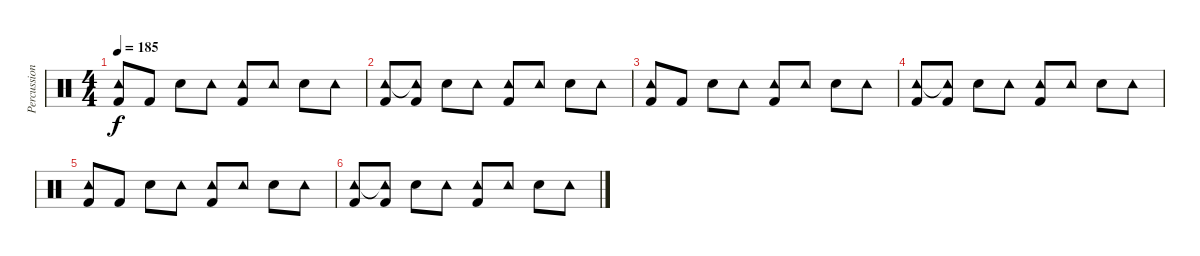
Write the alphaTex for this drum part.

\track ("Percussion" "Percussion") {instrument percussion}
\staff {score}
\articulation defaults
\ts (4 4)
\tempo 185
\clef neutral
\ks c
("Tambourine (hit)" "Kick (hit) 2").8{dy f} "Kick (hit) 2".8 "Electric Snare (hit)".8 "Tambourine (hit)".8 ("Tambourine (hit)" "Kick (hit) 2").8 "Tambourine (hit)".8 "Snare (hit) 2".8 "Tambourine (hit)".8 |
("Tambourine (hit)" "Kick (hit) 2").8 ("Tambourine (hit)"{t} "Kick (hit) 2").8 "Electric Snare (hit)".8 "Tambourine (hit)".8 ("Tambourine (hit)" "Kick (hit) 2").8 "Tambourine (hit)".8 "Electric Snare (hit)".8 "Tambourine (hit)".8 |
("Tambourine (hit)" "Kick (hit) 2").8 "Kick (hit) 2".8 "Electric Snare (hit)".8 "Tambourine (hit)".8 ("Tambourine (hit)" "Kick (hit) 2").8 "Tambourine (hit)".8 "Snare (hit) 2".8 "Tambourine (hit)".8 |
("Tambourine (hit)" "Kick (hit) 2").8 ("Tambourine (hit)"{t} "Kick (hit) 2").8 "Electric Snare (hit)".8 "Tambourine (hit)".8 ("Tambourine (hit)" "Kick (hit) 2").8 "Tambourine (hit)".8 "Electric Snare (hit)".8 "Tambourine (hit)".8 |
("Tambourine (hit)" "Kick (hit) 2").8 "Kick (hit) 2".8 "Electric Snare (hit)".8 "Tambourine (hit)".8 ("Tambourine (hit)" "Kick (hit) 2").8 "Tambourine (hit)".8 "Snare (hit) 2".8 "Tambourine (hit)".8 |
("Tambourine (hit)" "Kick (hit) 2").8 ("Tambourine (hit)"{t} "Kick (hit) 2").8 "Electric Snare (hit)".8 "Tambourine (hit)".8 ("Tambourine (hit)" "Kick (hit) 2").8 "Tambourine (hit)".8 "Electric Snare (hit)".8 "Tambourine (hit)".8
